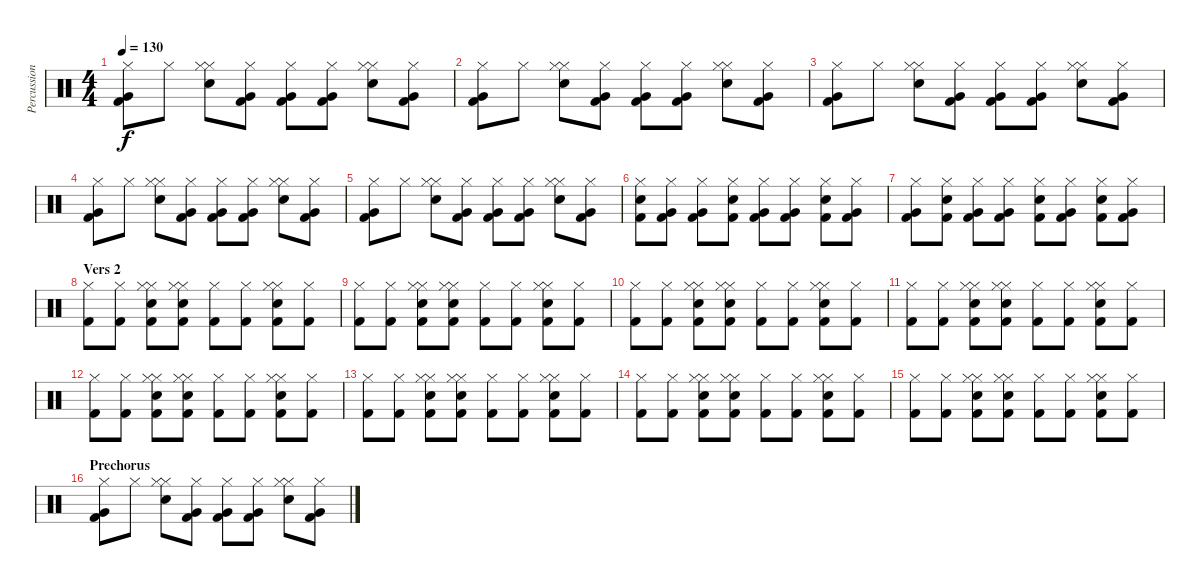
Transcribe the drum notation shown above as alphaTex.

\track ("Percussion" "Percussion") {instrument percussion}
\staff {score}
\articulation defaults
\ts (4 4)
\tempo 130
\clef neutral
\ks c
("Hi-Hat (closed)" "Very Low Tom (hit)" "Kick (hit) 2").8{dy f} "Hi-Hat (closed)".8 ("Hi-Hat (closed)" "Hi-Hat (closed)" "Snare (hit) 2").8 ("Hi-Hat (closed)" "Very Low Tom (hit)" "Kick (hit) 2").8 ("Hi-Hat (closed)" "Very Low Tom (hit)" "Kick (hit) 2").8 ("Hi-Hat (closed)" "Very Low Tom (hit)" "Kick (hit) 2").8 ("Hi-Hat (closed)" "Hi-Hat (closed)" "Snare (hit) 2").8 ("Hi-Hat (closed)" "Very Low Tom (hit)" "Kick (hit) 2").8 |
("Hi-Hat (closed)" "Very Low Tom (hit)" "Kick (hit) 2").8 "Hi-Hat (closed)".8 ("Hi-Hat (closed)" "Hi-Hat (closed)" "Snare (hit) 2").8 ("Hi-Hat (closed)" "Very Low Tom (hit)" "Kick (hit) 2").8 ("Hi-Hat (closed)" "Very Low Tom (hit)" "Kick (hit) 2").8 ("Hi-Hat (closed)" "Very Low Tom (hit)" "Kick (hit) 2").8 ("Hi-Hat (closed)" "Hi-Hat (closed)" "Snare (hit) 2").8 ("Hi-Hat (closed)" "Very Low Tom (hit)" "Kick (hit) 2").8 |
("Hi-Hat (closed)" "Very Low Tom (hit)" "Kick (hit) 2").8 "Hi-Hat (closed)".8 ("Hi-Hat (closed)" "Hi-Hat (closed)" "Snare (hit) 2").8 ("Hi-Hat (closed)" "Very Low Tom (hit)" "Kick (hit) 2").8 ("Hi-Hat (closed)" "Very Low Tom (hit)" "Kick (hit) 2").8 ("Hi-Hat (closed)" "Very Low Tom (hit)" "Kick (hit) 2").8 ("Hi-Hat (closed)" "Hi-Hat (closed)" "Snare (hit) 2").8 ("Hi-Hat (closed)" "Very Low Tom (hit)" "Kick (hit) 2").8 |
("Hi-Hat (closed)" "Very Low Tom (hit)" "Kick (hit) 2").8 "Hi-Hat (closed)".8 ("Hi-Hat (closed)" "Hi-Hat (closed)" "Snare (hit) 2").8 ("Hi-Hat (closed)" "Very Low Tom (hit)" "Kick (hit) 2").8 ("Hi-Hat (closed)" "Very Low Tom (hit)" "Kick (hit) 2").8 ("Hi-Hat (closed)" "Very Low Tom (hit)" "Kick (hit) 2").8 ("Hi-Hat (closed)" "Hi-Hat (closed)" "Snare (hit) 2").8 ("Hi-Hat (closed)" "Very Low Tom (hit)" "Kick (hit) 2").8 |
("Hi-Hat (closed)" "Very Low Tom (hit)" "Kick (hit) 2").8 "Hi-Hat (closed)".8 ("Hi-Hat (closed)" "Hi-Hat (closed)" "Snare (hit) 2").8 ("Hi-Hat (closed)" "Very Low Tom (hit)" "Kick (hit) 2").8 ("Hi-Hat (closed)" "Very Low Tom (hit)" "Kick (hit) 2").8 ("Hi-Hat (closed)" "Very Low Tom (hit)" "Kick (hit) 2").8 ("Hi-Hat (closed)" "Hi-Hat (closed)" "Snare (hit) 2").8 ("Hi-Hat (closed)" "Very Low Tom (hit)" "Kick (hit) 2").8 |
("Hi-Hat (closed)" "Snare (hit) 2" "Kick (hit) 2").8 ("Hi-Hat (closed)" "Very Low Tom (hit)" "Kick (hit) 2").8 ("Hi-Hat (closed)" "Very Low Tom (hit)" "Kick (hit) 2").8 ("Hi-Hat (closed)" "Snare (hit) 2" "Kick (hit) 2").8 ("Hi-Hat (closed)" "Very Low Tom (hit)" "Kick (hit) 2").8 ("Hi-Hat (closed)" "Very Low Tom (hit)" "Kick (hit) 2").8 ("Hi-Hat (closed)" "Snare (hit) 2" "Kick (hit) 2").8 ("Hi-Hat (closed)" "Very Low Tom (hit)" "Kick (hit) 2").8 |
("Hi-Hat (closed)" "Very Low Tom (hit)" "Kick (hit) 2").8 ("Hi-Hat (closed)" "Snare (hit) 2" "Kick (hit) 2").8 ("Hi-Hat (closed)" "Very Low Tom (hit)" "Kick (hit) 2").8 ("Hi-Hat (closed)" "Very Low Tom (hit)" "Kick (hit) 2").8 ("Hi-Hat (closed)" "Snare (hit) 2" "Kick (hit) 2").8 ("Hi-Hat (closed)" "Very Low Tom (hit)" "Kick (hit) 2").8 ("Hi-Hat (closed)" "Snare (hit) 2" "Kick (hit) 2").8 ("Hi-Hat (closed)" "Very Low Tom (hit)" "Kick (hit) 2").8 |
\section ("" "Vers 2")
("Hi-Hat (closed)" "Kick (hit) 2").8 ("Hi-Hat (closed)" "Kick (hit) 2").8 ("Hi-Hat (closed)" "Hi-Hat (closed)" "Snare (hit) 2" "Kick (hit) 2").8 ("Hi-Hat (closed)" "Hi-Hat (closed)" "Snare (hit) 2" "Kick (hit) 2").8 ("Hi-Hat (closed)" "Kick (hit) 2").8 ("Hi-Hat (closed)" "Kick (hit) 2").8 ("Hi-Hat (closed)" "Hi-Hat (closed)" "Snare (hit) 2" "Kick (hit) 2").8 ("Hi-Hat (closed)" "Kick (hit) 2").8 |
("Hi-Hat (closed)" "Kick (hit) 2").8 ("Hi-Hat (closed)" "Kick (hit) 2").8 ("Hi-Hat (closed)" "Hi-Hat (closed)" "Snare (hit) 2" "Kick (hit) 2").8 ("Hi-Hat (closed)" "Hi-Hat (closed)" "Snare (hit) 2" "Kick (hit) 2").8 ("Hi-Hat (closed)" "Kick (hit) 2").8 ("Hi-Hat (closed)" "Kick (hit) 2").8 ("Hi-Hat (closed)" "Hi-Hat (closed)" "Snare (hit) 2" "Kick (hit) 2").8 ("Hi-Hat (closed)" "Kick (hit) 2").8 |
("Hi-Hat (closed)" "Kick (hit) 2").8 ("Hi-Hat (closed)" "Kick (hit) 2").8 ("Hi-Hat (closed)" "Hi-Hat (closed)" "Snare (hit) 2" "Kick (hit) 2").8 ("Hi-Hat (closed)" "Hi-Hat (closed)" "Snare (hit) 2" "Kick (hit) 2").8 ("Hi-Hat (closed)" "Kick (hit) 2").8 ("Hi-Hat (closed)" "Kick (hit) 2").8 ("Hi-Hat (closed)" "Hi-Hat (closed)" "Snare (hit) 2" "Kick (hit) 2").8 ("Hi-Hat (closed)" "Kick (hit) 2").8 |
("Hi-Hat (closed)" "Kick (hit) 2").8 ("Hi-Hat (closed)" "Kick (hit) 2").8 ("Hi-Hat (closed)" "Hi-Hat (closed)" "Snare (hit) 2" "Kick (hit) 2").8 ("Hi-Hat (closed)" "Hi-Hat (closed)" "Snare (hit) 2" "Kick (hit) 2").8 ("Hi-Hat (closed)" "Kick (hit) 2").8 ("Hi-Hat (closed)" "Kick (hit) 2").8 ("Hi-Hat (closed)" "Hi-Hat (closed)" "Snare (hit) 2" "Kick (hit) 2").8 ("Hi-Hat (closed)" "Kick (hit) 2").8 |
("Hi-Hat (closed)" "Kick (hit) 2").8 ("Hi-Hat (closed)" "Kick (hit) 2").8 ("Hi-Hat (closed)" "Hi-Hat (closed)" "Snare (hit) 2" "Kick (hit) 2").8 ("Hi-Hat (closed)" "Hi-Hat (closed)" "Snare (hit) 2" "Kick (hit) 2").8 ("Hi-Hat (closed)" "Kick (hit) 2").8 ("Hi-Hat (closed)" "Kick (hit) 2").8 ("Hi-Hat (closed)" "Hi-Hat (closed)" "Snare (hit) 2" "Kick (hit) 2").8 ("Hi-Hat (closed)" "Kick (hit) 2").8 |
("Hi-Hat (closed)" "Kick (hit) 2").8 ("Hi-Hat (closed)" "Kick (hit) 2").8 ("Hi-Hat (closed)" "Hi-Hat (closed)" "Snare (hit) 2" "Kick (hit) 2").8 ("Hi-Hat (closed)" "Hi-Hat (closed)" "Snare (hit) 2" "Kick (hit) 2").8 ("Hi-Hat (closed)" "Kick (hit) 2").8 ("Hi-Hat (closed)" "Kick (hit) 2").8 ("Hi-Hat (closed)" "Hi-Hat (closed)" "Snare (hit) 2" "Kick (hit) 2").8 ("Hi-Hat (closed)" "Kick (hit) 2").8 |
("Hi-Hat (closed)" "Kick (hit) 2").8 ("Hi-Hat (closed)" "Kick (hit) 2").8 ("Hi-Hat (closed)" "Hi-Hat (closed)" "Snare (hit) 2" "Kick (hit) 2").8 ("Hi-Hat (closed)" "Hi-Hat (closed)" "Snare (hit) 2" "Kick (hit) 2").8 ("Hi-Hat (closed)" "Kick (hit) 2").8 ("Hi-Hat (closed)" "Kick (hit) 2").8 ("Hi-Hat (closed)" "Hi-Hat (closed)" "Snare (hit) 2" "Kick (hit) 2").8 ("Hi-Hat (closed)" "Kick (hit) 2").8 |
("Hi-Hat (closed)" "Kick (hit) 2").8 ("Hi-Hat (closed)" "Kick (hit) 2").8 ("Hi-Hat (closed)" "Hi-Hat (closed)" "Snare (hit) 2" "Kick (hit) 2").8 ("Hi-Hat (closed)" "Hi-Hat (closed)" "Snare (hit) 2" "Kick (hit) 2").8 ("Hi-Hat (closed)" "Kick (hit) 2").8 ("Hi-Hat (closed)" "Kick (hit) 2").8 ("Hi-Hat (closed)" "Hi-Hat (closed)" "Snare (hit) 2" "Kick (hit) 2").8 ("Hi-Hat (closed)" "Kick (hit) 2").8 |
\section ("" "Prechorus")
("Hi-Hat (closed)" "Very Low Tom (hit)" "Kick (hit) 2").8 "Hi-Hat (closed)".8 ("Hi-Hat (closed)" "Hi-Hat (closed)" "Snare (hit) 2").8 ("Hi-Hat (closed)" "Very Low Tom (hit)" "Kick (hit) 2").8 ("Hi-Hat (closed)" "Very Low Tom (hit)" "Kick (hit) 2").8 ("Hi-Hat (closed)" "Very Low Tom (hit)" "Kick (hit) 2").8 ("Hi-Hat (closed)" "Hi-Hat (closed)" "Snare (hit) 2").8 ("Hi-Hat (closed)" "Very Low Tom (hit)" "Kick (hit) 2").8
